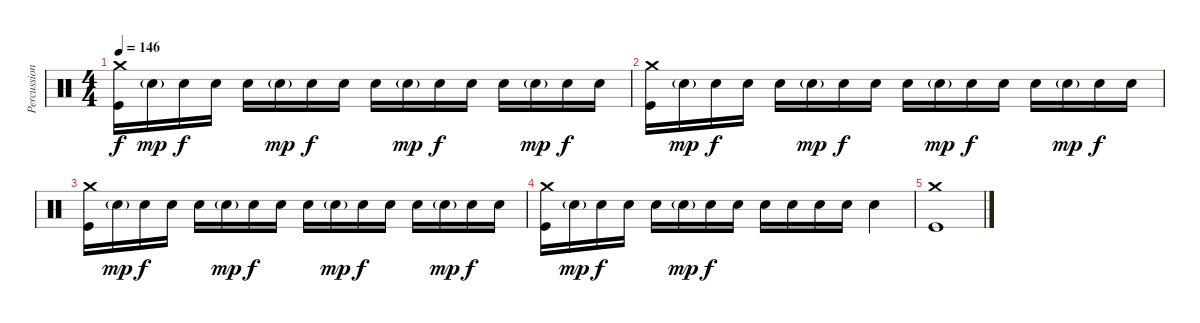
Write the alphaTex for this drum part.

\track ("Percussion" "Percussion") {instrument percussion}
\staff {score}
\articulation defaults
\ts (4 4)
\tempo 146
\clef neutral
\ks c
("Crash medium (hit)" "Kick (hit)").16{dy f} "Snare (hit) 2"{g}.16{dy mp} "Snare (hit) 2".16{dy f} "Snare (hit) 2".16 "Snare (hit) 2".16 "Snare (hit) 2"{g}.16{dy mp} "Snare (hit) 2".16{dy f} "Snare (hit) 2".16 "Snare (hit) 2".16 "Snare (hit) 2"{g}.16{dy mp} "Snare (hit) 2".16{dy f} "Snare (hit) 2".16 "Snare (hit) 2".16 "Snare (hit) 2"{g}.16{dy mp} "Snare (hit) 2".16{dy f} "Snare (hit) 2".16 |
("Crash medium (hit)" "Kick (hit)").16 "Snare (hit) 2"{g}.16{dy mp} "Snare (hit) 2".16{dy f} "Snare (hit) 2".16 "Snare (hit) 2".16 "Snare (hit) 2"{g}.16{dy mp} "Snare (hit) 2".16{dy f} "Snare (hit) 2".16 "Snare (hit) 2".16 "Snare (hit) 2"{g}.16{dy mp} "Snare (hit) 2".16{dy f} "Snare (hit) 2".16 "Snare (hit) 2".16 "Snare (hit) 2"{g}.16{dy mp} "Snare (hit) 2".16{dy f} "Snare (hit) 2".16 |
("Crash medium (hit)" "Kick (hit)").16 "Snare (hit) 2"{g}.16{dy mp} "Snare (hit) 2".16{dy f} "Snare (hit) 2".16 "Snare (hit) 2".16 "Snare (hit) 2"{g}.16{dy mp} "Snare (hit) 2".16{dy f} "Snare (hit) 2".16 "Snare (hit) 2".16 "Snare (hit) 2"{g}.16{dy mp} "Snare (hit) 2".16{dy f} "Snare (hit) 2".16 "Snare (hit) 2".16 "Snare (hit) 2"{g}.16{dy mp} "Snare (hit) 2".16{dy f} "Snare (hit) 2".16 |
("Crash medium (hit)" "Kick (hit)").16 "Snare (hit) 2"{g}.16{dy mp} "Snare (hit) 2".16{dy f} "Snare (hit) 2".16 "Snare (hit) 2".16 "Snare (hit) 2"{g}.16{dy mp} "Snare (hit) 2".16{dy f} "Snare (hit) 2".16 "Snare (hit) 2".16 "Snare (hit) 2".16 "Snare (hit) 2".16 "Snare (hit) 2".16 "Snare (hit) 2".4 |
("Crash medium (hit)" "Kick (hit)").1
